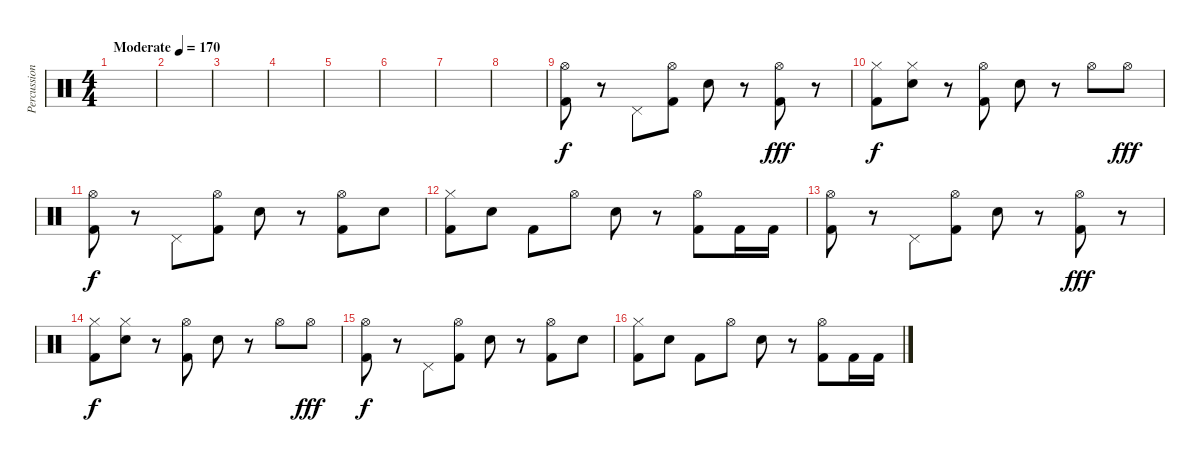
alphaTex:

\track ("Percussion" "Percussion") {instrument percussion}
\staff {score}
\articulation defaults
\ts (4 4)
\tempo (170 "Moderate")
\clef neutral
\ks c
|
|
|
|
|
|
|
|
("Hi-Hat (open)" "Kick (hit) 2").8 r.8 "Pedal Hi-Hat (hit)".8 ("Hi-Hat (open)" "Kick (hit) 2").8 "Snare (hit) 2".8 r.8 ("Hi-Hat (open)" "Kick (hit) 2").8{dy fff} r.8 |
("Hi-Hat (closed)" "Kick (hit) 2").8{dy f} ("Hi-Hat (closed)" "Snare (hit) 2").8 r.8 ("Hi-Hat (open)" "Kick (hit) 2").8 "Snare (hit) 2".8 r.8 "Hi-Hat (open)".8 "Hi-Hat (open)".8{dy fff} |
("Hi-Hat (open)" "Kick (hit) 2").8{dy f} r.8 "Pedal Hi-Hat (hit)".8 ("Hi-Hat (open)" "Kick (hit) 2").8 "Snare (hit) 2".8 r.8 ("Hi-Hat (open)" "Kick (hit) 2").8 "Snare (hit) 2".8 |
("Hi-Hat (closed)" "Kick (hit) 2").8 "Snare (hit) 2".8 "Kick (hit) 2".8 "Hi-Hat (open)".8 "Snare (hit) 2".8 r.8 ("Hi-Hat (open)" "Kick (hit) 2").8 "Kick (hit) 2".16 "Kick (hit) 2".16 |
("Hi-Hat (open)" "Kick (hit) 2").8 r.8 "Pedal Hi-Hat (hit)".8 ("Hi-Hat (open)" "Kick (hit) 2").8 "Snare (hit) 2".8 r.8 ("Hi-Hat (open)" "Kick (hit) 2").8{dy fff} r.8 |
("Hi-Hat (closed)" "Kick (hit) 2").8{dy f} ("Hi-Hat (closed)" "Snare (hit) 2").8 r.8 ("Hi-Hat (open)" "Kick (hit) 2").8 "Snare (hit) 2".8 r.8 "Hi-Hat (open)".8 "Hi-Hat (open)".8{dy fff} |
("Hi-Hat (open)" "Kick (hit) 2").8{dy f} r.8 "Pedal Hi-Hat (hit)".8 ("Hi-Hat (open)" "Kick (hit) 2").8 "Snare (hit) 2".8 r.8 ("Hi-Hat (open)" "Kick (hit) 2").8 "Snare (hit) 2".8 |
("Hi-Hat (closed)" "Kick (hit) 2").8 "Snare (hit) 2".8 "Kick (hit) 2".8 "Hi-Hat (open)".8 "Snare (hit) 2".8 r.8 ("Hi-Hat (open)" "Kick (hit) 2").8 "Kick (hit) 2".16 "Kick (hit) 2".16
